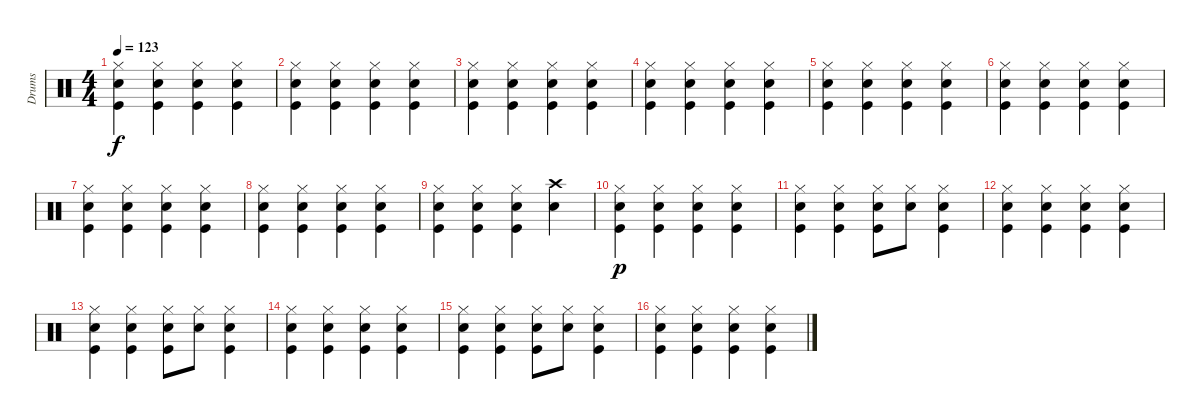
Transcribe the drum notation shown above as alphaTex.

\track ("Drums" "Drums") {instrument percussion}
\staff {score}
\articulation defaults
\ts (4 4)
\tempo 123
\clef neutral
\ks c
("Kick (hit)" "Electric Snare (hit)" "Hi-Hat (closed)").4{dy f} ("Kick (hit)" "Electric Snare (hit)" "Hi-Hat (closed)").4 ("Kick (hit)" "Electric Snare (hit)" "Hi-Hat (closed)").4 ("Kick (hit)" "Electric Snare (hit)" "Hi-Hat (closed)").4 |
("Kick (hit)" "Electric Snare (hit)" "Hi-Hat (closed)").4 ("Kick (hit)" "Electric Snare (hit)" "Hi-Hat (closed)").4 ("Kick (hit)" "Electric Snare (hit)" "Hi-Hat (closed)").4 ("Kick (hit)" "Electric Snare (hit)" "Hi-Hat (closed)").4 |
("Kick (hit)" "Electric Snare (hit)" "Hi-Hat (closed)").4 ("Kick (hit)" "Electric Snare (hit)" "Hi-Hat (closed)").4 ("Kick (hit)" "Electric Snare (hit)" "Hi-Hat (closed)").4 ("Kick (hit)" "Electric Snare (hit)" "Hi-Hat (closed)").4 |
("Kick (hit)" "Electric Snare (hit)" "Hi-Hat (closed)").4 ("Kick (hit)" "Electric Snare (hit)" "Hi-Hat (closed)").4 ("Kick (hit)" "Electric Snare (hit)" "Hi-Hat (closed)").4 ("Kick (hit)" "Electric Snare (hit)" "Hi-Hat (closed)").4 |
("Kick (hit)" "Electric Snare (hit)" "Hi-Hat (closed)").4 ("Kick (hit)" "Electric Snare (hit)" "Hi-Hat (closed)").4 ("Kick (hit)" "Electric Snare (hit)" "Hi-Hat (closed)").4 ("Kick (hit)" "Electric Snare (hit)" "Hi-Hat (closed)").4 |
("Kick (hit)" "Electric Snare (hit)" "Hi-Hat (closed)").4 ("Kick (hit)" "Electric Snare (hit)" "Hi-Hat (closed)").4 ("Kick (hit)" "Electric Snare (hit)" "Hi-Hat (closed)").4 ("Kick (hit)" "Electric Snare (hit)" "Hi-Hat (closed)").4 |
("Kick (hit)" "Electric Snare (hit)" "Hi-Hat (closed)").4 ("Kick (hit)" "Electric Snare (hit)" "Hi-Hat (closed)").4 ("Kick (hit)" "Electric Snare (hit)" "Hi-Hat (closed)").4 ("Kick (hit)" "Electric Snare (hit)" "Hi-Hat (closed)").4 |
("Kick (hit)" "Electric Snare (hit)" "Hi-Hat (closed)").4 ("Kick (hit)" "Electric Snare (hit)" "Hi-Hat (closed)").4 ("Kick (hit)" "Electric Snare (hit)" "Hi-Hat (closed)").4 ("Kick (hit)" "Electric Snare (hit)" "Hi-Hat (closed)").4 |
("Hi-Hat (closed)" "Kick (hit)" "Electric Snare (hit)").4 ("Electric Snare (hit)" "Hi-Hat (closed)" "Kick (hit)").4 ("Hi-Hat (closed)" "Electric Snare (hit)" "Kick (hit)").4 ("Crash high (hit)" "Electric Snare (hit)").4 |
("Hi-Hat (closed)" "Kick (hit)" "Electric Snare (hit)").4{dy p} ("Hi-Hat (closed)" "Kick (hit)" "Electric Snare (hit)").4 ("Hi-Hat (closed)" "Kick (hit)" "Electric Snare (hit)").4 ("Hi-Hat (closed)" "Kick (hit)" "Electric Snare (hit)").4 |
("Electric Snare (hit)" "Kick (hit)" "Hi-Hat (closed)").4 ("Kick (hit)" "Electric Snare (hit)" "Hi-Hat (closed)").4 ("Kick (hit)" "Electric Snare (hit)" "Hi-Hat (closed)").8 ("Hi-Hat (closed)" "Electric Snare (hit)").8 ("Kick (hit)" "Electric Snare (hit)" "Hi-Hat (closed)").4 |
("Hi-Hat (closed)" "Kick (hit)" "Electric Snare (hit)").4 ("Hi-Hat (closed)" "Kick (hit)" "Electric Snare (hit)").4 ("Hi-Hat (closed)" "Kick (hit)" "Electric Snare (hit)").4 ("Hi-Hat (closed)" "Kick (hit)" "Electric Snare (hit)").4 |
("Electric Snare (hit)" "Kick (hit)" "Hi-Hat (closed)").4 ("Kick (hit)" "Electric Snare (hit)" "Hi-Hat (closed)").4 ("Kick (hit)" "Electric Snare (hit)" "Hi-Hat (closed)").8 ("Hi-Hat (closed)" "Electric Snare (hit)").8 ("Kick (hit)" "Electric Snare (hit)" "Hi-Hat (closed)").4 |
("Hi-Hat (closed)" "Kick (hit)" "Electric Snare (hit)").4 ("Hi-Hat (closed)" "Kick (hit)" "Electric Snare (hit)").4 ("Hi-Hat (closed)" "Kick (hit)" "Electric Snare (hit)").4 ("Hi-Hat (closed)" "Kick (hit)" "Electric Snare (hit)").4 |
("Electric Snare (hit)" "Kick (hit)" "Hi-Hat (closed)").4 ("Kick (hit)" "Electric Snare (hit)" "Hi-Hat (closed)").4 ("Kick (hit)" "Electric Snare (hit)" "Hi-Hat (closed)").8 ("Hi-Hat (closed)" "Electric Snare (hit)").8 ("Kick (hit)" "Electric Snare (hit)" "Hi-Hat (closed)").4 |
("Hi-Hat (closed)" "Kick (hit)" "Electric Snare (hit)").4 ("Hi-Hat (closed)" "Kick (hit)" "Electric Snare (hit)").4 ("Hi-Hat (closed)" "Kick (hit)" "Electric Snare (hit)").4 ("Hi-Hat (closed)" "Kick (hit)" "Electric Snare (hit)").4
